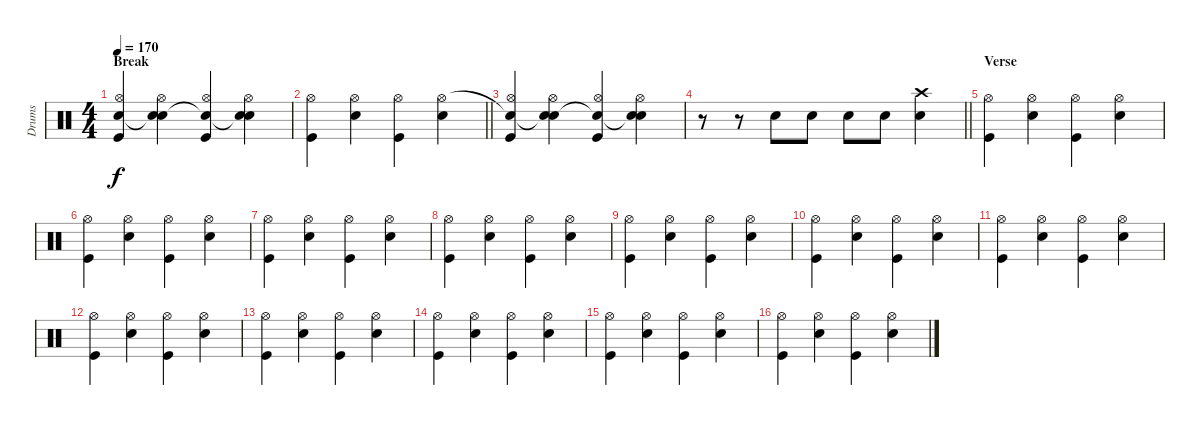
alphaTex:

\track ("Drums" "Drums") {instrument percussion}
\staff {score}
\articulation defaults
\ts (4 4)
\section ("" "Break")
\tempo 170
\clef neutral
\ks c
("Snare (hit)"{t} "Hi-Hat (open)" "Kick (hit)").4{dy f} ("Snare (hit)"{t} "Hi-Hat (open)" "Snare (hit) 2").4 ("Snare (hit)"{t} "Hi-Hat (open)" "Kick (hit)").4 ("Snare (hit)"{t} "Hi-Hat (open)" "Snare (hit) 2").4 |
\barLineRight lightlight
("Hi-Hat (open)" "Kick (hit)").4 ("Hi-Hat (open)" "Snare (hit) 2").4 ("Hi-Hat (open)" "Kick (hit)").4 ("Hi-Hat (open)" "Snare (hit) 2").4 |
("Snare (hit)"{t} "Hi-Hat (open)" "Kick (hit)").4 ("Snare (hit)"{t} "Hi-Hat (open)" "Snare (hit) 2").4 ("Snare (hit)"{t} "Hi-Hat (open)" "Kick (hit)").4 ("Snare (hit)"{t} "Hi-Hat (open)" "Snare (hit) 2").4 |
\barLineRight lightlight
r.8 r.8 "Snare (hit) 2".8 "Snare (hit) 2".8 "Snare (hit) 2".8 "Snare (hit) 2".8 ("Crash high (hit)" "Snare (hit) 2").4 |
\section ("" "Verse")
("Hi-Hat (open)" "Kick (hit)").4 ("Hi-Hat (open)" "Snare (hit) 2").4 ("Hi-Hat (open)" "Kick (hit)").4 ("Hi-Hat (open)" "Snare (hit) 2").4 |
("Hi-Hat (open)" "Kick (hit)").4 ("Hi-Hat (open)" "Snare (hit) 2").4 ("Hi-Hat (open)" "Kick (hit)").4 ("Hi-Hat (open)" "Snare (hit) 2").4 |
("Hi-Hat (open)" "Kick (hit)").4 ("Hi-Hat (open)" "Snare (hit) 2").4 ("Hi-Hat (open)" "Kick (hit)").4 ("Hi-Hat (open)" "Snare (hit) 2").4 |
("Hi-Hat (open)" "Kick (hit)").4 ("Hi-Hat (open)" "Snare (hit) 2").4 ("Hi-Hat (open)" "Kick (hit)").4 ("Hi-Hat (open)" "Snare (hit) 2").4 |
("Hi-Hat (open)" "Kick (hit)").4 ("Hi-Hat (open)" "Snare (hit) 2").4 ("Hi-Hat (open)" "Kick (hit)").4 ("Hi-Hat (open)" "Snare (hit) 2").4 |
("Hi-Hat (open)" "Kick (hit)").4 ("Hi-Hat (open)" "Snare (hit) 2").4 ("Hi-Hat (open)" "Kick (hit)").4 ("Hi-Hat (open)" "Snare (hit) 2").4 |
("Hi-Hat (open)" "Kick (hit)").4 ("Hi-Hat (open)" "Snare (hit) 2").4 ("Hi-Hat (open)" "Kick (hit)").4 ("Hi-Hat (open)" "Snare (hit) 2").4 |
("Hi-Hat (open)" "Kick (hit)").4 ("Hi-Hat (open)" "Snare (hit) 2").4 ("Hi-Hat (open)" "Kick (hit)").4 ("Hi-Hat (open)" "Snare (hit) 2").4 |
("Hi-Hat (open)" "Kick (hit)").4 ("Hi-Hat (open)" "Snare (hit) 2").4 ("Hi-Hat (open)" "Kick (hit)").4 ("Hi-Hat (open)" "Snare (hit) 2").4 |
("Hi-Hat (open)" "Kick (hit)").4 ("Hi-Hat (open)" "Snare (hit) 2").4 ("Hi-Hat (open)" "Kick (hit)").4 ("Hi-Hat (open)" "Snare (hit) 2").4 |
("Hi-Hat (open)" "Kick (hit)").4 ("Hi-Hat (open)" "Snare (hit) 2").4 ("Hi-Hat (open)" "Kick (hit)").4 ("Hi-Hat (open)" "Snare (hit) 2").4 |
("Hi-Hat (open)" "Kick (hit)").4 ("Hi-Hat (open)" "Snare (hit) 2").4 ("Hi-Hat (open)" "Kick (hit)").4 ("Hi-Hat (open)" "Snare (hit) 2").4
